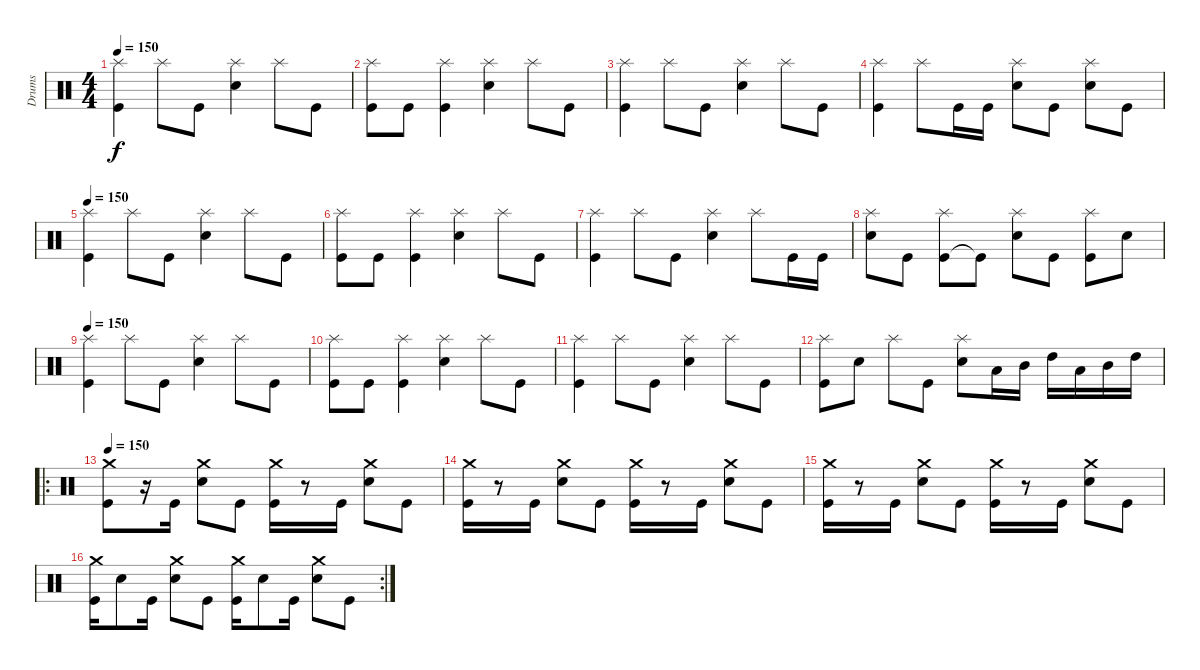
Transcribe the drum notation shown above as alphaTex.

\track ("Drums" "Drums") {instrument percussion}
\staff {score}
\articulation defaults
\ts (4 4)
\tempo 150
\clef neutral
\ks c
("Kick (hit)" "Splash (hit)").4{dy f} "Splash (hit)".8 "Kick (hit)".8 ("Electric Snare (hit)" "Splash (hit)").4 "Splash (hit)".8 "Kick (hit)".8 |
("Kick (hit)" "Splash (hit)").8 "Kick (hit)".8 ("Kick (hit)" "Splash (hit)").4 ("Electric Snare (hit)" "Splash (hit)").4 "Splash (hit)".8 "Kick (hit)".8 |
("Kick (hit)" "Splash (hit)").4 "Splash (hit)".8 "Kick (hit)".8 ("Electric Snare (hit)" "Splash (hit)").4 "Splash (hit)".8 "Kick (hit)".8 |
("Kick (hit)" "Splash (hit)").4 "Splash (hit)".8 "Kick (hit)".16 "Kick (hit)".16 ("Electric Snare (hit)" "Splash (hit)").8 "Kick (hit)".8 ("Electric Snare (hit)" "Splash (hit)").8 "Kick (hit)".8 |
\tempo 150
("Kick (hit)" "Splash (hit)").4 "Splash (hit)".8 "Kick (hit)".8 ("Electric Snare (hit)" "Splash (hit)").4 "Splash (hit)".8 "Kick (hit)".8 |
("Kick (hit)" "Splash (hit)").8 "Kick (hit)".8 ("Kick (hit)" "Splash (hit)").4 ("Electric Snare (hit)" "Splash (hit)").4 "Splash (hit)".8 "Kick (hit)".8 |
("Kick (hit)" "Splash (hit)").4 "Splash (hit)".8 "Kick (hit)".8 ("Electric Snare (hit)" "Splash (hit)").4 "Splash (hit)".8 "Kick (hit)".16 "Kick (hit)".16 |
("Electric Snare (hit)" "Splash (hit)").8 "Kick (hit)".8 ("Kick (hit)" "Splash (hit)").8 "Kick (hit)"{t}.8 ("Electric Snare (hit)" "Splash (hit)").8 "Kick (hit)".8 ("Kick (hit)" "Splash (hit)").8 "Electric Snare (hit)".8 |
\tempo 150
("Kick (hit)" "Splash (hit)").4 "Splash (hit)".8 "Kick (hit)".8 ("Electric Snare (hit)" "Splash (hit)").4 "Splash (hit)".8 "Kick (hit)".8 |
("Kick (hit)" "Splash (hit)").8 "Kick (hit)".8 ("Kick (hit)" "Splash (hit)").4 ("Electric Snare (hit)" "Splash (hit)").4 "Splash (hit)".8 "Kick (hit)".8 |
("Kick (hit)" "Splash (hit)").4 "Splash (hit)".8 "Kick (hit)".8 ("Electric Snare (hit)" "Splash (hit)").4 "Splash (hit)".8 "Kick (hit)".8 |
("Kick (hit)" "Splash (hit)").8 "Electric Snare (hit)".8 "Splash (hit)".8 "Kick (hit)".8 ("Electric Snare (hit)" "Splash (hit)").8 "Low Tom (hit)".16 "Mid Tom (hit)".16 "High Tom (hit)".16 "Low Tom (hit)".16 "Mid Tom (hit)".16 "High Tom (hit)".16 |
\ro
\tempo 150
("Kick (hit)" "Crash medium (hit)").8 r.16 "Kick (hit)".16 ("Electric Snare (hit)" "Crash medium (hit)").8 "Kick (hit)".8 ("Kick (hit)" "Crash medium (hit)").16 r.8 "Kick (hit)".16 ("Electric Snare (hit)" "Crash medium (hit)").8 "Kick (hit)".8 |
("Kick (hit)" "Crash medium (hit)").16 r.8 "Kick (hit)".16 ("Electric Snare (hit)" "Crash medium (hit)").8 "Kick (hit)".8 ("Kick (hit)" "Crash medium (hit)").16 r.8 "Kick (hit)".16 ("Electric Snare (hit)" "Crash medium (hit)").8 "Kick (hit)".8 |
("Kick (hit)" "Crash medium (hit)").16 r.8 "Kick (hit)".16 ("Electric Snare (hit)" "Crash medium (hit)").8 "Kick (hit)".8 ("Kick (hit)" "Crash medium (hit)").16 r.8 "Kick (hit)".16 ("Electric Snare (hit)" "Crash medium (hit)").8 "Kick (hit)".8 |
\rc 2
("Kick (hit)" "Crash medium (hit)").16 "Electric Snare (hit)".8 "Kick (hit)".16 ("Electric Snare (hit)" "Crash medium (hit)").8 "Kick (hit)".8 ("Kick (hit)" "Crash medium (hit)").16 "Electric Snare (hit)".8 "Kick (hit)".16 ("Electric Snare (hit)" "Crash medium (hit)").8 "Kick (hit)".8
